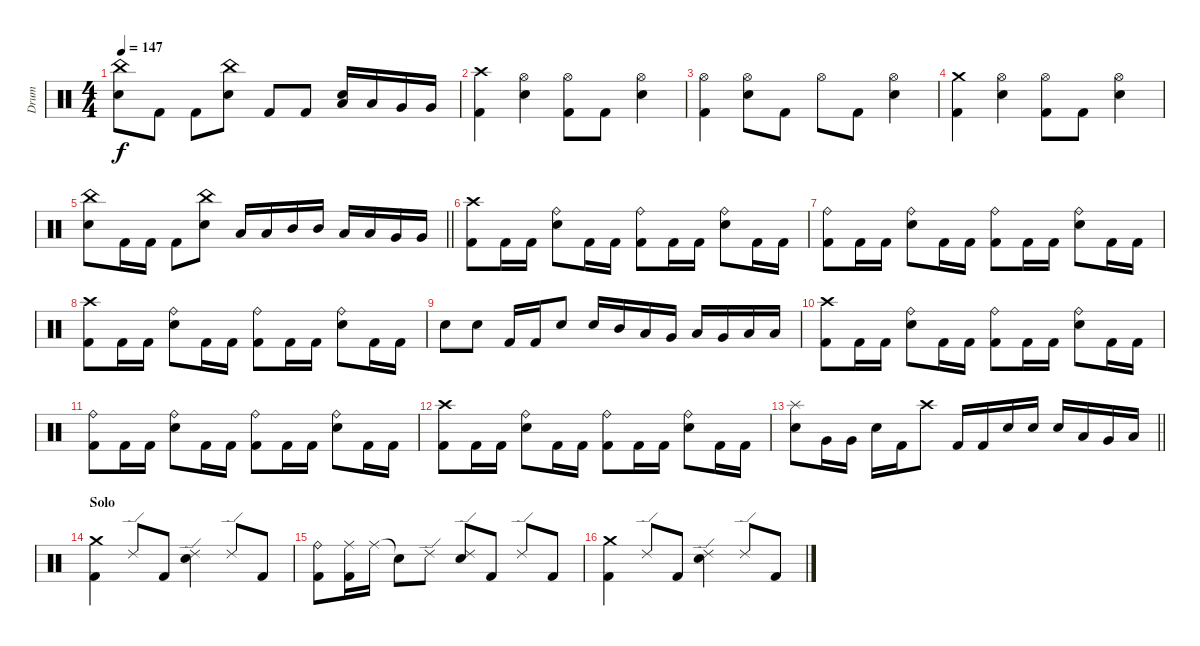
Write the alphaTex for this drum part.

\track ("Drum" "Drum") {instrument percussion}
\staff {score}
\articulation defaults
\ts (4 4)
\tempo 147
\clef neutral
\ks c
("China (hit)" "Electric Snare (hit)").8{dy f} "Kick (hit) 2".8 "Kick (hit) 2".8 ("China (hit)" "Electric Snare (hit)").8 "Kick (hit) 2".8 "Kick (hit) 2".8 ("Electric Snare (hit)" "Low Tom (hit)").16 "Low Tom (hit)".16 "Very Low Tom (hit)".16 "Very Low Tom (hit)".16 |
("Crash high (hit)" "Kick (hit) 2").4 ("Hi-Hat (open)" "Electric Snare (hit)").4 ("Hi-Hat (open)" "Kick (hit) 2").8 "Kick (hit) 2".8 ("Hi-Hat (open)" "Electric Snare (hit)").4 |
("Hi-Hat (open)" "Kick (hit) 2").4 ("Hi-Hat (open)" "Electric Snare (hit)").8 "Kick (hit) 2".8 "Hi-Hat (open)".8 "Kick (hit) 2".8 ("Hi-Hat (open)" "Electric Snare (hit)").4 |
("Crash medium (hit)" "Kick (hit) 2").4 ("Hi-Hat (open)" "Electric Snare (hit)").4 ("Hi-Hat (open)" "Kick (hit) 2").8 "Kick (hit) 2".8 ("Hi-Hat (open)" "Electric Snare (hit)").4 |
\barLineRight lightlight
("China (hit)" "Electric Snare (hit)").8 "Kick (hit) 2".16 "Kick (hit) 2".16 "Kick (hit) 2".8 ("China (hit)" "Electric Snare (hit)").8 "Low Floor Tom (hit)".16 "Low Floor Tom (hit)".16 "Mid Tom (hit)".16 "Mid Tom (hit)".16 "Low Tom (hit)".16 "Low Tom (hit)".16 "Very Low Tom (hit)".16 "Very Low Tom (hit)".16 |
\section ("" "")
("Crash high (hit)" "Kick (hit) 2").8 "Kick (hit) 2".16 "Kick (hit) 2".16 ("Ride (bell)" "Electric Snare (hit)").8 "Kick (hit) 2".16 "Kick (hit) 2".16 ("Ride (bell)" "Kick (hit) 2").8 "Kick (hit) 2".16 "Kick (hit) 2".16 ("Ride (bell)" "Electric Snare (hit)").8 "Kick (hit) 2".16 "Kick (hit) 2".16 |
("Ride (bell)" "Kick (hit) 2").8 "Kick (hit) 2".16 "Kick (hit) 2".16 ("Ride (bell)" "Electric Snare (hit)").8 "Kick (hit) 2".16 "Kick (hit) 2".16 ("Ride (bell)" "Kick (hit) 2").8 "Kick (hit) 2".16 "Kick (hit) 2".16 ("Ride (bell)" "Electric Snare (hit)").8 "Kick (hit) 2".16 "Kick (hit) 2".16 |
("Crash high (hit)" "Kick (hit) 2").8 "Kick (hit) 2".16 "Kick (hit) 2".16 ("Ride (bell)" "Electric Snare (hit)").8 "Kick (hit) 2".16 "Kick (hit) 2".16 ("Ride (bell)" "Kick (hit) 2").8 "Kick (hit) 2".16 "Kick (hit) 2".16 ("Ride (bell)" "Electric Snare (hit)").8 "Kick (hit) 2".16 "Kick (hit) 2".16 |
"Electric Snare (hit)".8 "Electric Snare (hit)".8 "Kick (hit) 2".16 "Kick (hit) 2".16 "Electric Snare (hit)".8 "Electric Snare (hit)".16 "Mid Tom (hit)".16 "Low Tom (hit)".16 "Very Low Tom (hit)".16 "Low Tom (hit)".16 "Very Low Tom (hit)".16 "Low Floor Tom (hit)".16 "Low Floor Tom (hit)".16 |
("Crash high (hit)" "Kick (hit) 2").8 "Kick (hit) 2".16 "Kick (hit) 2".16 ("Ride (bell)" "Electric Snare (hit)").8 "Kick (hit) 2".16 "Kick (hit) 2".16 ("Ride (bell)" "Kick (hit) 2").8 "Kick (hit) 2".16 "Kick (hit) 2".16 ("Ride (bell)" "Electric Snare (hit)").8 "Kick (hit) 2".16 "Kick (hit) 2".16 |
("Ride (bell)" "Kick (hit) 2").8 "Kick (hit) 2".16 "Kick (hit) 2".16 ("Ride (bell)" "Electric Snare (hit)").8 "Kick (hit) 2".16 "Kick (hit) 2".16 ("Ride (bell)" "Kick (hit) 2").8 "Kick (hit) 2".16 "Kick (hit) 2".16 ("Ride (bell)" "Electric Snare (hit)").8 "Kick (hit) 2".16 "Kick (hit) 2".16 |
("Crash high (hit)" "Kick (hit) 2").8 "Kick (hit) 2".16 "Kick (hit) 2".16 ("Ride (bell)" "Electric Snare (hit)").8 "Kick (hit) 2".16 "Kick (hit) 2".16 ("Ride (bell)" "Kick (hit) 2").8 "Kick (hit) 2".16 "Kick (hit) 2".16 ("Ride (bell)" "Electric Snare (hit)").8 "Kick (hit) 2".16 "Kick (hit) 2".16 |
\barLineRight lightlight
("Splash (hit)" "Electric Snare (hit)").8 "Very Low Tom (hit)".16 "Very Low Tom (hit)".16 "Electric Snare (hit)".16 "Kick (hit) 2".16 "Crash high (hit)".8 "Kick (hit) 2".16 "Kick (hit) 2".16 "Electric Snare (hit)".16 "Electric Snare (hit)".16 "Electric Snare (hit)".16 "Low Tom (hit)".16 "Very Low Tom (hit)".16 "Low Floor Tom (hit)".16 |
\section ("" "Solo")
("Crash medium (hit)" "Kick (hit) 2").4 "Ride (edge) 2".8 "Kick (hit) 2".8 ("Ride (edge) 2" "Electric Snare (hit)").4 "Ride (edge) 2".8 "Kick (hit) 2".8 |
("Ride (bell)" "Kick (hit) 2").8 ("Ride (middle)" "Kick (hit) 2").16 "Ride (middle)".16 "Snare (hit)"{t}.8 "Ride (edge) 2".8 ("Ride (edge) 2" "Electric Snare (hit)").8 "Kick (hit) 2".8 "Ride (edge) 2".8 "Kick (hit) 2".8 |
("Crash medium (hit)" "Kick (hit) 2").4 "Ride (edge) 2".8 "Kick (hit) 2".8 ("Ride (edge) 2" "Electric Snare (hit)").4 "Ride (edge) 2".8 "Kick (hit) 2".8
